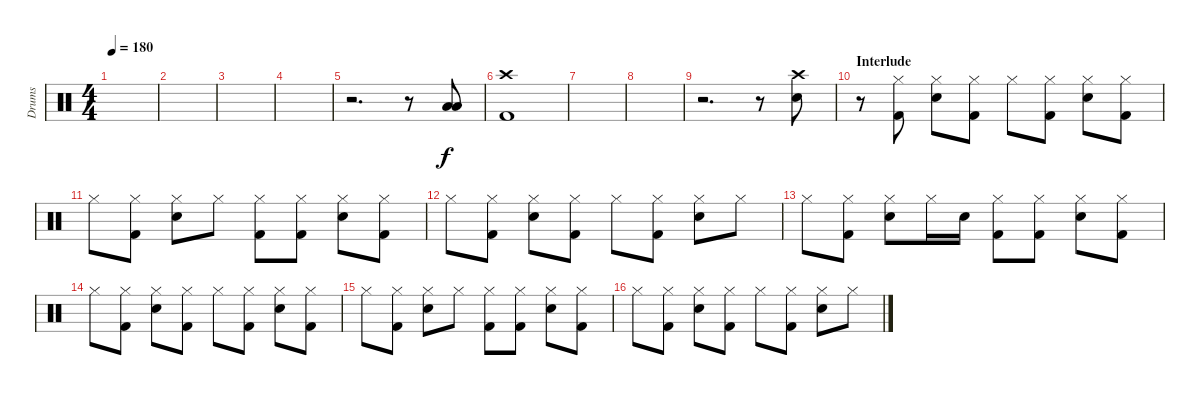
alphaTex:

\track ("Drums" "Drums") {instrument percussion}
\staff {score}
\articulation defaults
\ts (4 4)
\tempo 180
\clef neutral
\ks c
|
|
|
|
r.2{d} r.8 ("Low Tom (hit)" "Low Floor Tom (hit)").8 |
("Crash high (hit)" "Kick (hit) 2").1{dy f} |
|
|
r.2{d} r.8 ("Crash high (hit)" "Electric Snare (hit)").8 |
\section ("" "Interlude")
r.8 ("Hi-Hat (closed)" "Kick (hit) 2").8 ("Hi-Hat (closed)" "Electric Snare (hit)").8 ("Hi-Hat (closed)" "Kick (hit) 2").8 "Hi-Hat (closed)".8 ("Hi-Hat (closed)" "Kick (hit) 2").8 ("Hi-Hat (closed)" "Electric Snare (hit)").8 ("Hi-Hat (closed)" "Kick (hit) 2").8 |
"Hi-Hat (closed)".8 ("Hi-Hat (closed)" "Kick (hit) 2").8 ("Hi-Hat (closed)" "Electric Snare (hit)").8 "Hi-Hat (closed)".8 ("Hi-Hat (closed)" "Kick (hit) 2").8 ("Hi-Hat (closed)" "Kick (hit) 2").8 ("Hi-Hat (closed)" "Electric Snare (hit)").8 ("Hi-Hat (closed)" "Kick (hit) 2").8 |
"Hi-Hat (closed)".8 ("Hi-Hat (closed)" "Kick (hit) 2").8 ("Hi-Hat (closed)" "Electric Snare (hit)").8 ("Hi-Hat (closed)" "Kick (hit) 2").8 "Hi-Hat (closed)".8 ("Hi-Hat (closed)" "Kick (hit) 2").8 ("Hi-Hat (closed)" "Electric Snare (hit)").8 "Hi-Hat (closed)".8 |
"Hi-Hat (closed)".8 ("Hi-Hat (closed)" "Kick (hit) 2").8 ("Hi-Hat (closed)" "Electric Snare (hit)").8 "Hi-Hat (closed)".16 "Electric Snare (hit)".16 ("Hi-Hat (closed)" "Kick (hit) 2").8 ("Hi-Hat (closed)" "Kick (hit) 2").8 ("Hi-Hat (closed)" "Electric Snare (hit)").8 ("Hi-Hat (closed)" "Kick (hit) 2").8 |
"Hi-Hat (closed)".8 ("Hi-Hat (closed)" "Kick (hit) 2").8 ("Hi-Hat (closed)" "Electric Snare (hit)").8 ("Hi-Hat (closed)" "Kick (hit) 2").8 "Hi-Hat (closed)".8 ("Hi-Hat (closed)" "Kick (hit) 2").8 ("Hi-Hat (closed)" "Electric Snare (hit)").8 ("Hi-Hat (closed)" "Kick (hit) 2").8 |
"Hi-Hat (closed)".8 ("Hi-Hat (closed)" "Kick (hit) 2").8 ("Hi-Hat (closed)" "Electric Snare (hit)").8 "Hi-Hat (closed)".8 ("Hi-Hat (closed)" "Kick (hit) 2").8 ("Hi-Hat (closed)" "Kick (hit) 2").8 ("Hi-Hat (closed)" "Electric Snare (hit)").8 ("Hi-Hat (closed)" "Kick (hit) 2").8 |
"Hi-Hat (closed)".8 ("Hi-Hat (closed)" "Kick (hit) 2").8 ("Hi-Hat (closed)" "Electric Snare (hit)").8 ("Hi-Hat (closed)" "Kick (hit) 2").8 "Hi-Hat (closed)".8 ("Hi-Hat (closed)" "Kick (hit) 2").8 ("Hi-Hat (closed)" "Electric Snare (hit)").8 "Hi-Hat (closed)".8
